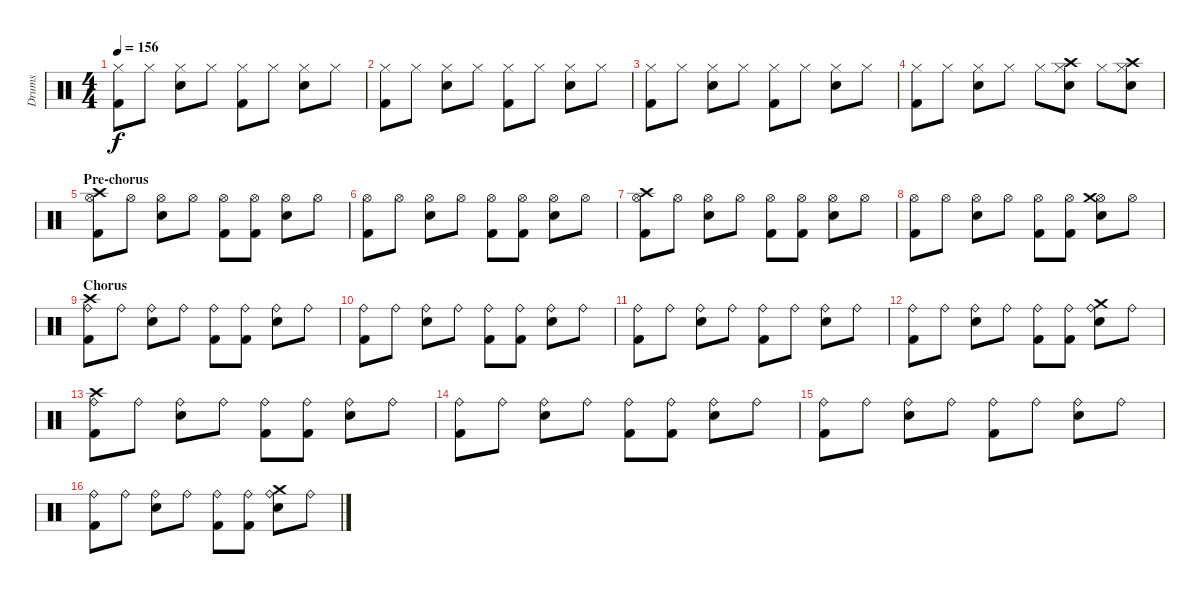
\track ("Drums" "Drums") {instrument percussion}
\staff {score}
\articulation defaults
\ts (4 4)
\tempo 156
\clef neutral
\ks c
("Hi-Hat (closed)" "Kick (hit) 2").8{dy f} "Hi-Hat (closed)".8 ("Hi-Hat (closed)" "Electric Snare (hit)").8 "Hi-Hat (closed)".8 ("Hi-Hat (closed)" "Kick (hit) 2").8 "Hi-Hat (closed)".8 ("Hi-Hat (closed)" "Electric Snare (hit)").8 "Hi-Hat (closed)".8 |
("Hi-Hat (closed)" "Kick (hit) 2").8 "Hi-Hat (closed)".8 ("Hi-Hat (closed)" "Electric Snare (hit)").8 "Hi-Hat (closed)".8 ("Hi-Hat (closed)" "Kick (hit) 2").8 "Hi-Hat (closed)".8 ("Hi-Hat (closed)" "Electric Snare (hit)").8 "Hi-Hat (closed)".8 |
("Hi-Hat (closed)" "Kick (hit) 2").8 "Hi-Hat (closed)".8 ("Hi-Hat (closed)" "Electric Snare (hit)").8 "Hi-Hat (closed)".8 ("Hi-Hat (closed)" "Kick (hit) 2").8 "Hi-Hat (closed)".8 ("Hi-Hat (closed)" "Electric Snare (hit)").8 "Hi-Hat (closed)".8 |
("Hi-Hat (closed)" "Kick (hit) 2").8 "Hi-Hat (closed)".8 ("Hi-Hat (closed)" "Electric Snare (hit)").8 "Hi-Hat (closed)".8 "Hi-Hat (closed)".8 ("Hi-Hat (closed)" "Electric Snare (hit)" "Crash high (hit)").8 "Hi-Hat (closed)".8 ("Hi-Hat (closed)" "Electric Snare (hit)" "Crash high (hit)").8 |
\section ("" "Pre-chorus")
("Hi-Hat (open)" "Kick (hit) 2" "Crash high (hit)").8 "Hi-Hat (open)".8 ("Hi-Hat (open)" "Electric Snare (hit)").8 "Hi-Hat (open)".8 ("Hi-Hat (open)" "Kick (hit) 2").8 ("Hi-Hat (open)" "Kick (hit) 2").8 ("Hi-Hat (open)" "Electric Snare (hit)").8 "Hi-Hat (open)".8 |
("Hi-Hat (open)" "Kick (hit) 2").8 "Hi-Hat (open)".8 ("Hi-Hat (open)" "Electric Snare (hit)").8 "Hi-Hat (open)".8 ("Hi-Hat (open)" "Kick (hit) 2").8 ("Hi-Hat (open)" "Kick (hit) 2").8 ("Hi-Hat (open)" "Electric Snare (hit)").8 "Hi-Hat (open)".8 |
("Hi-Hat (open)" "Kick (hit) 2" "Crash high (hit)").8 "Hi-Hat (open)".8 ("Hi-Hat (open)" "Electric Snare (hit)").8 "Hi-Hat (open)".8 ("Hi-Hat (open)" "Kick (hit) 2").8 ("Hi-Hat (open)" "Kick (hit) 2").8 ("Hi-Hat (open)" "Electric Snare (hit)").8 "Hi-Hat (open)".8 |
("Hi-Hat (open)" "Kick (hit) 2").8 "Hi-Hat (open)".8 ("Hi-Hat (open)" "Electric Snare (hit)").8 "Hi-Hat (open)".8 ("Hi-Hat (open)" "Kick (hit) 2").8 ("Hi-Hat (open)" "Kick (hit) 2").8 ("Hi-Hat (open)" "Electric Snare (hit)" "Crash medium (hit)").8 "Hi-Hat (open)".8 |
\section ("" "Chorus")
("Ride (bell)" "Kick (hit) 2" "Crash high (hit)").8 "Ride (bell)".8 ("Ride (bell)" "Electric Snare (hit)").8 "Ride (bell)".8 ("Ride (bell)" "Kick (hit) 2").8 ("Ride (bell)" "Kick (hit) 2").8 ("Ride (bell)" "Electric Snare (hit)").8 "Ride (bell)".8 |
("Ride (bell)" "Kick (hit) 2").8 "Ride (bell)".8 ("Ride (bell)" "Electric Snare (hit)").8 "Ride (bell)".8 ("Ride (bell)" "Kick (hit) 2").8 ("Ride (bell)" "Kick (hit) 2").8 ("Ride (bell)" "Electric Snare (hit)").8 "Ride (bell)".8 |
("Ride (bell)" "Kick (hit) 2").8 "Ride (bell)".8 ("Ride (bell)" "Electric Snare (hit)").8 "Ride (bell)".8 ("Ride (bell)" "Kick (hit) 2").8 "Ride (bell)".8 ("Ride (bell)" "Electric Snare (hit)").8 "Ride (bell)".8 |
("Ride (bell)" "Kick (hit) 2").8 "Ride (bell)".8 ("Ride (bell)" "Electric Snare (hit)").8 "Ride (bell)".8 ("Ride (bell)" "Kick (hit) 2").8 ("Ride (bell)" "Kick (hit) 2").8 ("Ride (bell)" "Electric Snare (hit)" "Crash medium (hit)").8 "Ride (bell)".8 |
("Ride (bell)" "Kick (hit) 2" "Crash high (hit)").8 "Ride (bell)".8 ("Ride (bell)" "Electric Snare (hit)").8 "Ride (bell)".8 ("Ride (bell)" "Kick (hit) 2").8 ("Ride (bell)" "Kick (hit) 2").8 ("Ride (bell)" "Electric Snare (hit)").8 "Ride (bell)".8 |
("Ride (bell)" "Kick (hit) 2").8 "Ride (bell)".8 ("Ride (bell)" "Electric Snare (hit)").8 "Ride (bell)".8 ("Ride (bell)" "Kick (hit) 2").8 ("Ride (bell)" "Kick (hit) 2").8 ("Ride (bell)" "Electric Snare (hit)").8 "Ride (bell)".8 |
("Ride (bell)" "Kick (hit) 2").8 "Ride (bell)".8 ("Ride (bell)" "Electric Snare (hit)").8 "Ride (bell)".8 ("Ride (bell)" "Kick (hit) 2").8 "Ride (bell)".8 ("Ride (bell)" "Electric Snare (hit)").8 "Ride (bell)".8 |
("Ride (bell)" "Kick (hit) 2").8 "Ride (bell)".8 ("Ride (bell)" "Electric Snare (hit)").8 "Ride (bell)".8 ("Ride (bell)" "Kick (hit) 2").8 ("Ride (bell)" "Kick (hit) 2").8 ("Ride (bell)" "Electric Snare (hit)" "Crash medium (hit)").8 "Ride (bell)".8
